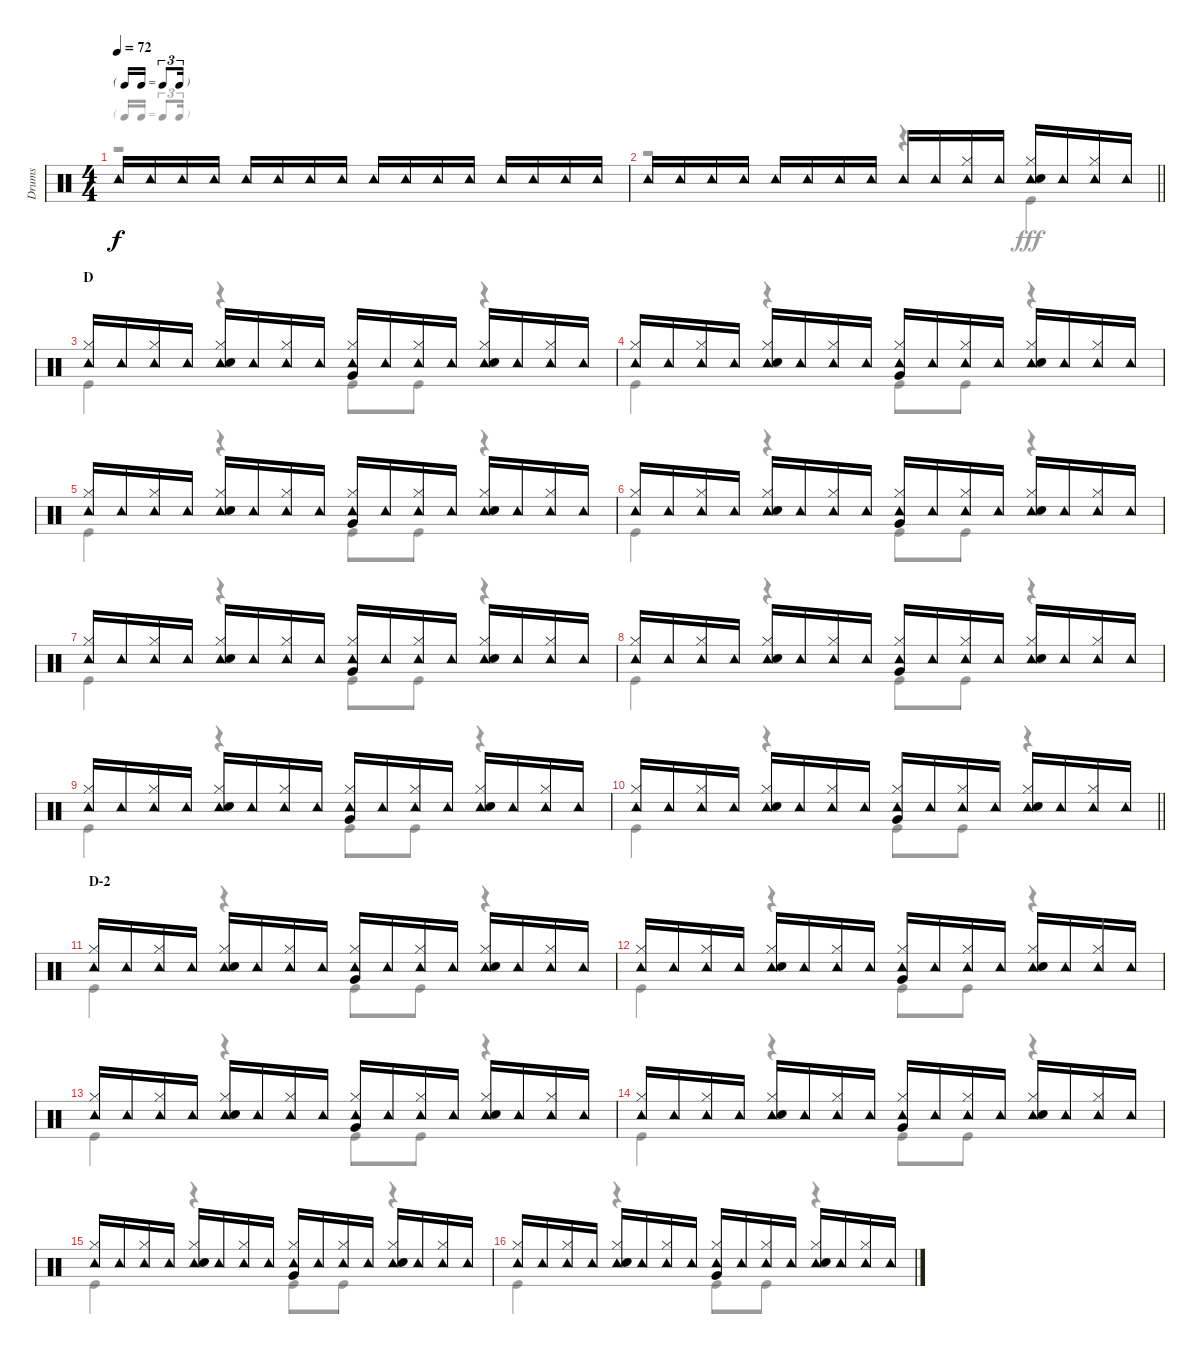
\track ("Drums" "Drums") {instrument percussion}
\staff {score}
\articulation defaults
\voice
\ts (4 4)
\tf triplet16th
\tempo 72
\clef neutral
\ks c "Tambourine (hit)".16{dy f} "Tambourine (hit)".16 "Tambourine (hit)".16 "Tambourine (hit)".16 "Tambourine (hit)".16 "Tambourine (hit)".16 "Tambourine (hit)".16 "Tambourine (hit)".16 "Tambourine (hit)".16 "Tambourine (hit)".16 "Tambourine (hit)".16 "Tambourine (hit)".16 "Tambourine (hit)".16 "Tambourine (hit)".16 "Tambourine (hit)".16 "Tambourine (hit)".16
|
\barLineRight lightlight "Tambourine (hit)".16 "Tambourine (hit)".16 "Tambourine (hit)".16 "Tambourine (hit)".16 "Tambourine (hit)".16 "Tambourine (hit)".16 "Tambourine (hit)".16 "Tambourine (hit)".16 "Tambourine (hit)".16 "Tambourine (hit)".16
("Tambourine (hit)" "Hi-Hat (closed)").16 "Tambourine (hit)".16 ("Tambourine (hit)" "Hi-Hat (closed)" "Snare (hit) 2").16 "Tambourine (hit)".16 ("Tambourine (hit)" "Hi-Hat (closed)").16 "Tambourine (hit)".16 |
\section ("" "D")
("Tambourine (hit)" "Hi-Hat (closed)").16 "Tambourine (hit)".16 ("Tambourine (hit)" "Hi-Hat (closed)").16 "Tambourine (hit)".16 ("Tambourine (hit)" "Hi-Hat (closed)" "Snare (hit) 2").16 "Tambourine (hit)".16 ("Tambourine (hit)" "Hi-Hat (closed)").16 "Tambourine (hit)".16 ("Tambourine (hit)" "Hi-Hat (closed)" "Very Low Tom (hit)").16 "Tambourine (hit)".16 ("Tambourine (hit)" "Hi-Hat (closed)").16 "Tambourine (hit)".16 ("Tambourine (hit)" "Hi-Hat (closed)" "Snare (hit) 2").16 "Tambourine (hit)".16 ("Tambourine (hit)" "Hi-Hat (closed)").16 "Tambourine (hit)".16 |
("Tambourine (hit)" "Hi-Hat (closed)").16 "Tambourine (hit)".16 ("Tambourine (hit)" "Hi-Hat (closed)").16 "Tambourine (hit)".16 ("Tambourine (hit)" "Hi-Hat (closed)" "Snare (hit) 2").16 "Tambourine (hit)".16 ("Tambourine (hit)" "Hi-Hat (closed)").16 "Tambourine (hit)".16 ("Tambourine (hit)" "Hi-Hat (closed)" "Very Low Tom (hit)").16 "Tambourine (hit)".16 ("Tambourine (hit)" "Hi-Hat (closed)").16 "Tambourine (hit)".16 ("Tambourine (hit)" "Hi-Hat (closed)" "Snare (hit) 2").16 "Tambourine (hit)".16 ("Tambourine (hit)" "Hi-Hat (closed)").16 "Tambourine (hit)".16 |
("Tambourine (hit)" "Hi-Hat (closed)").16 "Tambourine (hit)".16 ("Tambourine (hit)" "Hi-Hat (closed)").16 "Tambourine (hit)".16 ("Tambourine (hit)" "Hi-Hat (closed)" "Snare (hit) 2").16 "Tambourine (hit)".16 ("Tambourine (hit)" "Hi-Hat (closed)").16 "Tambourine (hit)".16 ("Tambourine (hit)" "Hi-Hat (closed)" "Very Low Tom (hit)").16 "Tambourine (hit)".16 ("Tambourine (hit)" "Hi-Hat (closed)").16 "Tambourine (hit)".16 ("Tambourine (hit)" "Hi-Hat (closed)" "Snare (hit) 2").16 "Tambourine (hit)".16 ("Tambourine (hit)" "Hi-Hat (closed)").16 "Tambourine (hit)".16 |
("Tambourine (hit)" "Hi-Hat (closed)").16 "Tambourine (hit)".16 ("Tambourine (hit)" "Hi-Hat (closed)").16 "Tambourine (hit)".16 ("Tambourine (hit)" "Hi-Hat (closed)" "Snare (hit) 2").16 "Tambourine (hit)".16 ("Tambourine (hit)" "Hi-Hat (closed)").16 "Tambourine (hit)".16 ("Tambourine (hit)" "Hi-Hat (closed)" "Very Low Tom (hit)").16 "Tambourine (hit)".16 ("Tambourine (hit)" "Hi-Hat (closed)").16 "Tambourine (hit)".16 ("Tambourine (hit)" "Hi-Hat (closed)" "Snare (hit) 2").16 "Tambourine (hit)".16 ("Tambourine (hit)" "Hi-Hat (closed)").16 "Tambourine (hit)".16 |
("Tambourine (hit)" "Hi-Hat (closed)").16 "Tambourine (hit)".16 ("Tambourine (hit)" "Hi-Hat (closed)").16 "Tambourine (hit)".16 ("Tambourine (hit)" "Hi-Hat (closed)" "Snare (hit) 2").16 "Tambourine (hit)".16 ("Tambourine (hit)" "Hi-Hat (closed)").16 "Tambourine (hit)".16 ("Tambourine (hit)" "Hi-Hat (closed)" "Very Low Tom (hit)").16 "Tambourine (hit)".16 ("Tambourine (hit)" "Hi-Hat (closed)").16 "Tambourine (hit)".16 ("Tambourine (hit)" "Hi-Hat (closed)" "Snare (hit) 2").16 "Tambourine (hit)".16 ("Tambourine (hit)" "Hi-Hat (closed)").16 "Tambourine (hit)".16 |
("Tambourine (hit)" "Hi-Hat (closed)").16 "Tambourine (hit)".16 ("Tambourine (hit)" "Hi-Hat (closed)").16 "Tambourine (hit)".16 ("Tambourine (hit)" "Hi-Hat (closed)" "Snare (hit) 2").16 "Tambourine (hit)".16 ("Tambourine (hit)" "Hi-Hat (closed)").16 "Tambourine (hit)".16 ("Tambourine (hit)" "Hi-Hat (closed)" "Very Low Tom (hit)").16 "Tambourine (hit)".16 ("Tambourine (hit)" "Hi-Hat (closed)").16 "Tambourine (hit)".16 ("Tambourine (hit)" "Hi-Hat (closed)" "Snare (hit) 2").16 "Tambourine (hit)".16 ("Tambourine (hit)" "Hi-Hat (closed)").16 "Tambourine (hit)".16 |
("Tambourine (hit)" "Hi-Hat (closed)").16 "Tambourine (hit)".16 ("Tambourine (hit)" "Hi-Hat (closed)").16 "Tambourine (hit)".16 ("Tambourine (hit)" "Hi-Hat (closed)" "Snare (hit) 2").16 "Tambourine (hit)".16 ("Tambourine (hit)" "Hi-Hat (closed)").16 "Tambourine (hit)".16 ("Tambourine (hit)" "Hi-Hat (closed)" "Very Low Tom (hit)").16 "Tambourine (hit)".16 ("Tambourine (hit)" "Hi-Hat (closed)").16 "Tambourine (hit)".16 ("Tambourine (hit)" "Hi-Hat (closed)" "Snare (hit) 2").16 "Tambourine (hit)".16 ("Tambourine (hit)" "Hi-Hat (closed)").16 "Tambourine (hit)".16 |
\barLineRight lightlight
("Tambourine (hit)" "Hi-Hat (closed)").16 "Tambourine (hit)".16 ("Tambourine (hit)" "Hi-Hat (closed)").16 "Tambourine (hit)".16 ("Tambourine (hit)" "Hi-Hat (closed)" "Snare (hit) 2").16 "Tambourine (hit)".16 ("Tambourine (hit)" "Hi-Hat (closed)").16 "Tambourine (hit)".16 ("Tambourine (hit)" "Hi-Hat (closed)" "Very Low Tom (hit)").16 "Tambourine (hit)".16 ("Tambourine (hit)" "Hi-Hat (closed)").16 "Tambourine (hit)".16 ("Tambourine (hit)" "Hi-Hat (closed)" "Snare (hit) 2").16 "Tambourine (hit)".16 ("Tambourine (hit)" "Hi-Hat (closed)").16 "Tambourine (hit)".16 |
\section ("" "D-2")
("Tambourine (hit)" "Hi-Hat (closed)").16 "Tambourine (hit)".16 ("Tambourine (hit)" "Hi-Hat (closed)").16 "Tambourine (hit)".16 ("Tambourine (hit)" "Hi-Hat (closed)" "Snare (hit) 2").16 "Tambourine (hit)".16 ("Tambourine (hit)" "Hi-Hat (closed)").16 "Tambourine (hit)".16 ("Tambourine (hit)" "Hi-Hat (closed)" "Very Low Tom (hit)").16 "Tambourine (hit)".16 ("Tambourine (hit)" "Hi-Hat (closed)").16 "Tambourine (hit)".16 ("Tambourine (hit)" "Hi-Hat (closed)" "Snare (hit) 2").16 "Tambourine (hit)".16 ("Tambourine (hit)" "Hi-Hat (closed)").16 "Tambourine (hit)".16 |
("Tambourine (hit)" "Hi-Hat (closed)").16 "Tambourine (hit)".16 ("Tambourine (hit)" "Hi-Hat (closed)").16 "Tambourine (hit)".16 ("Tambourine (hit)" "Hi-Hat (closed)" "Snare (hit) 2").16 "Tambourine (hit)".16 ("Tambourine (hit)" "Hi-Hat (closed)").16 "Tambourine (hit)".16 ("Tambourine (hit)" "Hi-Hat (closed)" "Very Low Tom (hit)").16 "Tambourine (hit)".16 ("Tambourine (hit)" "Hi-Hat (closed)").16 "Tambourine (hit)".16 ("Tambourine (hit)" "Hi-Hat (closed)" "Snare (hit) 2").16 "Tambourine (hit)".16 ("Tambourine (hit)" "Hi-Hat (closed)").16 "Tambourine (hit)".16 |
("Tambourine (hit)" "Hi-Hat (closed)").16 "Tambourine (hit)".16 ("Tambourine (hit)" "Hi-Hat (closed)").16 "Tambourine (hit)".16 ("Tambourine (hit)" "Hi-Hat (closed)" "Snare (hit) 2").16 "Tambourine (hit)".16 ("Tambourine (hit)" "Hi-Hat (closed)").16 "Tambourine (hit)".16 ("Tambourine (hit)" "Hi-Hat (closed)" "Very Low Tom (hit)").16 "Tambourine (hit)".16 ("Tambourine (hit)" "Hi-Hat (closed)").16 "Tambourine (hit)".16 ("Tambourine (hit)" "Hi-Hat (closed)" "Snare (hit) 2").16 "Tambourine (hit)".16 ("Tambourine (hit)" "Hi-Hat (closed)").16 "Tambourine (hit)".16 |
("Tambourine (hit)" "Hi-Hat (closed)").16 "Tambourine (hit)".16 ("Tambourine (hit)" "Hi-Hat (closed)").16 "Tambourine (hit)".16 ("Tambourine (hit)" "Hi-Hat (closed)" "Snare (hit) 2").16 "Tambourine (hit)".16 ("Tambourine (hit)" "Hi-Hat (closed)").16 "Tambourine (hit)".16 ("Tambourine (hit)" "Hi-Hat (closed)" "Very Low Tom (hit)").16 "Tambourine (hit)".16 ("Tambourine (hit)" "Hi-Hat (closed)").16 "Tambourine (hit)".16 ("Tambourine (hit)" "Hi-Hat (closed)" "Snare (hit) 2").16 "Tambourine (hit)".16 ("Tambourine (hit)" "Hi-Hat (closed)").16 "Tambourine (hit)".16 |
("Tambourine (hit)" "Hi-Hat (closed)").16 "Tambourine (hit)".16 ("Tambourine (hit)" "Hi-Hat (closed)").16 "Tambourine (hit)".16 ("Tambourine (hit)" "Hi-Hat (closed)" "Snare (hit) 2").16 "Tambourine (hit)".16 ("Tambourine (hit)" "Hi-Hat (closed)").16 "Tambourine (hit)".16 ("Tambourine (hit)" "Hi-Hat (closed)" "Very Low Tom (hit)").16 "Tambourine (hit)".16 ("Tambourine (hit)" "Hi-Hat (closed)").16 "Tambourine (hit)".16 ("Tambourine (hit)" "Hi-Hat (closed)" "Snare (hit) 2").16 "Tambourine (hit)".16 ("Tambourine (hit)" "Hi-Hat (closed)").16 "Tambourine (hit)".16 |
("Tambourine (hit)" "Hi-Hat (closed)").16 "Tambourine (hit)".16 ("Tambourine (hit)" "Hi-Hat (closed)").16 "Tambourine (hit)".16 ("Tambourine (hit)" "Hi-Hat (closed)" "Snare (hit) 2").16 "Tambourine (hit)".16 ("Tambourine (hit)" "Hi-Hat (closed)").16 "Tambourine (hit)".16 ("Tambourine (hit)" "Hi-Hat (closed)" "Very Low Tom (hit)").16 "Tambourine (hit)".16 ("Tambourine (hit)" "Hi-Hat (closed)").16 "Tambourine (hit)".16 ("Tambourine (hit)" "Hi-Hat (closed)" "Snare (hit) 2").16 "Tambourine (hit)".16 ("Tambourine (hit)" "Hi-Hat (closed)").16 "Tambourine (hit)".16
\voice
\clef neutral
\ottava regular
\simile none
\ks c
r.1{dy fff} |
\barLineRight lightlight
r.2 r.4 "Kick (hit)".4 |
"Kick (hit)".4 r.4 "Kick (hit)".8 "Kick (hit)".8 r.4 |
"Kick (hit)".4 r.4 "Kick (hit)".8 "Kick (hit)".8 r.4 |
"Kick (hit)".4 r.4 "Kick (hit)".8 "Kick (hit)".8 r.4 |
"Kick (hit)".4 r.4 "Kick (hit)".8 "Kick (hit)".8 r.4 |
"Kick (hit)".4 r.4 "Kick (hit)".8 "Kick (hit)".8 r.4 |
"Kick (hit)".4 r.4 "Kick (hit)".8 "Kick (hit)".8 r.4 |
"Kick (hit)".4 r.4 "Kick (hit)".8 "Kick (hit)".8 r.4 |
\barLineRight lightlight "Kick (hit)".4
r.4 "Kick (hit)".8 "Kick (hit)".8 r.4 |
"Kick (hit)".4 r.4 "Kick (hit)".8 "Kick (hit)".8 r.4 |
"Kick (hit)".4 r.4 "Kick (hit)".8 "Kick (hit)".8 r.4 |
"Kick (hit)".4 r.4 "Kick (hit)".8 "Kick (hit)".8 r.4 |
"Kick (hit)".4 r.4 "Kick (hit)".8 "Kick (hit)".8 r.4 |
"Kick (hit)".4 r.4 "Kick (hit)".8 "Kick (hit)".8 r.4 |
"Kick (hit)".4 r.4 "Kick (hit)".8 "Kick (hit)".8 r.4
